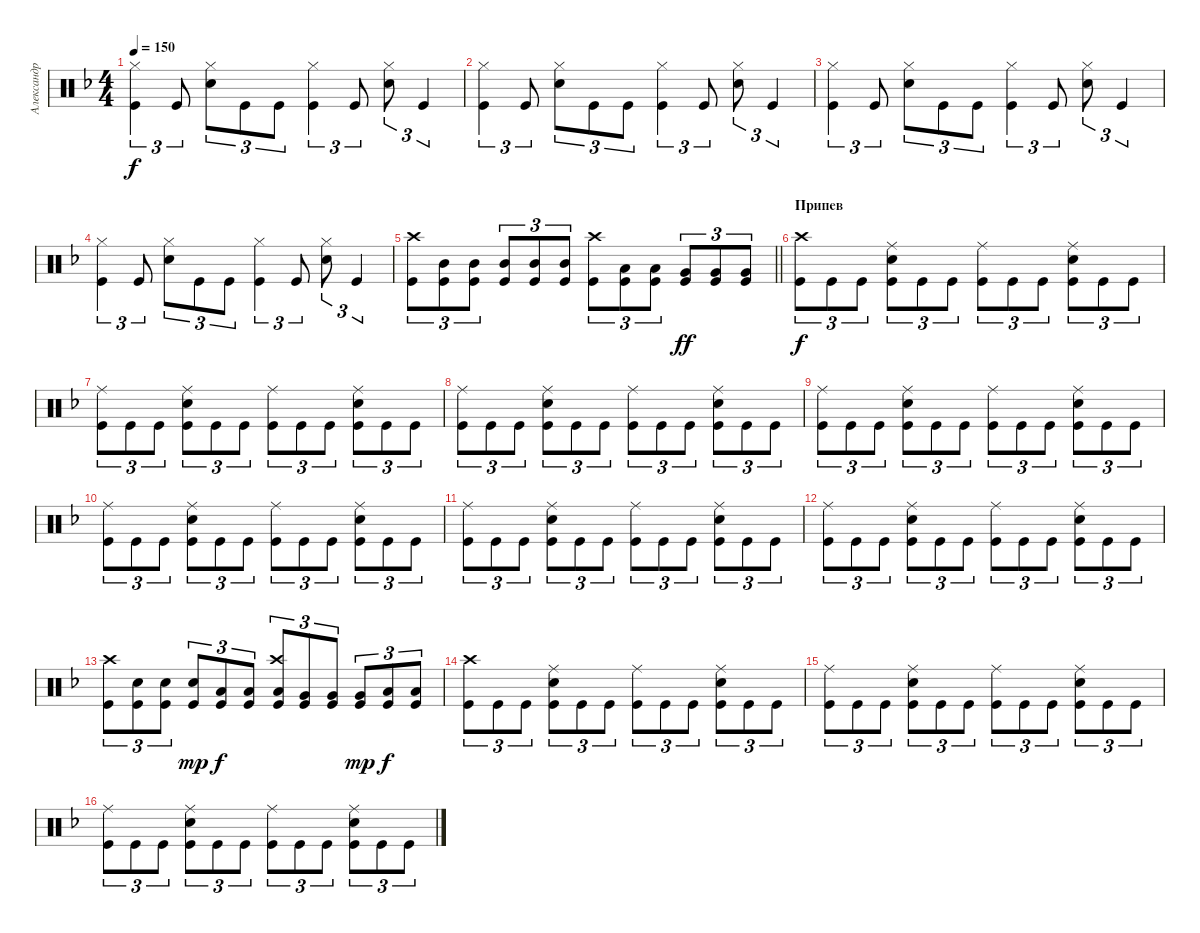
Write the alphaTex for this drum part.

\track ("Александр Манякин" "Александр ") {instrument percussion}
\staff {score}
\articulation defaults
\ts (4 4)
\tempo 150
\clef neutral
\ks dminor
("Kick (hit)" "Hi-Hat (closed)").4{tu (3 2) dy f} "Kick (hit)".8{tu (3 2)} ("Snare (hit) 2" "Hi-Hat (closed)").8{tu (3 2)} "Kick (hit)".8{tu (3 2)} "Kick (hit)".8{tu (3 2)} ("Kick (hit)" "Hi-Hat (closed)").4{tu (3 2)} "Kick (hit)".8{tu (3 2)} ("Snare (hit) 2" "Hi-Hat (closed)").8{tu (3 2)} "Kick (hit)".4{tu (3 2)} |
("Kick (hit)" "Hi-Hat (closed)").4{tu (3 2)} "Kick (hit)".8{tu (3 2)} ("Snare (hit) 2" "Hi-Hat (closed)").8{tu (3 2)} "Kick (hit)".8{tu (3 2)} "Kick (hit)".8{tu (3 2)} ("Kick (hit)" "Hi-Hat (closed)").4{tu (3 2)} "Kick (hit)".8{tu (3 2)} ("Snare (hit) 2" "Hi-Hat (closed)").8{tu (3 2)} "Kick (hit)".4{tu (3 2)} |
("Kick (hit)" "Hi-Hat (closed)").4{tu (3 2)} "Kick (hit)".8{tu (3 2)} ("Snare (hit) 2" "Hi-Hat (closed)").8{tu (3 2)} "Kick (hit)".8{tu (3 2)} "Kick (hit)".8{tu (3 2)} ("Kick (hit)" "Hi-Hat (closed)").4{tu (3 2)} "Kick (hit)".8{tu (3 2)} ("Snare (hit) 2" "Hi-Hat (closed)").8{tu (3 2)} "Kick (hit)".4{tu (3 2)} |
("Kick (hit)" "Hi-Hat (closed)").4{tu (3 2)} "Kick (hit)".8{tu (3 2)} ("Snare (hit) 2" "Hi-Hat (closed)").8{tu (3 2)} "Kick (hit)".8{tu (3 2)} "Kick (hit)".8{tu (3 2)} ("Kick (hit)" "Hi-Hat (closed)").4{tu (3 2)} "Kick (hit)".8{tu (3 2)} ("Snare (hit) 2" "Hi-Hat (closed)").8{tu (3 2)} "Kick (hit)".4{tu (3 2)} |
\barLineRight lightlight
("Kick (hit)" "Crash high (hit)").8{tu (3 2)} ("Mid Tom (hit)" "Kick (hit)").8{tu (3 2)} ("Mid Tom (hit)" "Kick (hit)").8{tu (3 2)} ("Mid Tom (hit)" "Kick (hit)").8{tu (3 2)} ("Mid Tom (hit)" "Kick (hit)").8{tu (3 2)} ("Mid Tom (hit)" "Kick (hit)").8{tu (3 2)} ("Kick (hit)" "Crash high (hit)").8{tu (3 2)} ("Low Tom (hit)" "Kick (hit)").8{tu (3 2)} ("Low Tom (hit)" "Kick (hit)").8{tu (3 2)} ("Very Low Tom (hit)" "Kick (hit)").8{tu (3 2) dy ff} ("Very Low Tom (hit)" "Kick (hit)").8{tu (3 2)} ("Very Low Tom (hit)" "Kick (hit)").8{tu (3 2)} |
\section ("" "Припев")
("Kick (hit)" "Crash high (hit)").8{tu (3 2) dy f} "Kick (hit)".8{tu (3 2)} "Kick (hit)".8{tu (3 2)} ("Snare (hit) 2" "Kick (hit)" "Ride (middle)").8{tu (3 2)} "Kick (hit)".8{tu (3 2)} "Kick (hit)".8{tu (3 2)} ("Kick (hit)" "Ride (middle)").8{tu (3 2)} "Kick (hit)".8{tu (3 2)} "Kick (hit)".8{tu (3 2)} ("Kick (hit)" "Snare (hit) 2" "Ride (middle)").8{tu (3 2)} "Kick (hit)".8{tu (3 2)} "Kick (hit)".8{tu (3 2)} |
("Kick (hit)" "Ride (middle)").8{tu (3 2)} "Kick (hit)".8{tu (3 2)} "Kick (hit)".8{tu (3 2)} ("Snare (hit) 2" "Kick (hit)" "Ride (middle)").8{tu (3 2)} "Kick (hit)".8{tu (3 2)} "Kick (hit)".8{tu (3 2)} ("Kick (hit)" "Ride (middle)").8{tu (3 2)} "Kick (hit)".8{tu (3 2)} "Kick (hit)".8{tu (3 2)} ("Kick (hit)" "Snare (hit) 2" "Ride (middle)").8{tu (3 2)} "Kick (hit)".8{tu (3 2)} "Kick (hit)".8{tu (3 2)} |
("Kick (hit)" "Ride (middle)").8{tu (3 2)} "Kick (hit)".8{tu (3 2)} "Kick (hit)".8{tu (3 2)} ("Snare (hit) 2" "Kick (hit)" "Ride (middle)").8{tu (3 2)} "Kick (hit)".8{tu (3 2)} "Kick (hit)".8{tu (3 2)} ("Kick (hit)" "Ride (middle)").8{tu (3 2)} "Kick (hit)".8{tu (3 2)} "Kick (hit)".8{tu (3 2)} ("Kick (hit)" "Snare (hit) 2" "Ride (middle)").8{tu (3 2)} "Kick (hit)".8{tu (3 2)} "Kick (hit)".8{tu (3 2)} |
("Kick (hit)" "Ride (middle)").8{tu (3 2)} "Kick (hit)".8{tu (3 2)} "Kick (hit)".8{tu (3 2)} ("Snare (hit) 2" "Kick (hit)" "Ride (middle)").8{tu (3 2)} "Kick (hit)".8{tu (3 2)} "Kick (hit)".8{tu (3 2)} ("Kick (hit)" "Ride (middle)").8{tu (3 2)} "Kick (hit)".8{tu (3 2)} "Kick (hit)".8{tu (3 2)} ("Kick (hit)" "Snare (hit) 2" "Ride (middle)").8{tu (3 2)} "Kick (hit)".8{tu (3 2)} "Kick (hit)".8{tu (3 2)} |
("Kick (hit)" "Ride (middle)").8{tu (3 2)} "Kick (hit)".8{tu (3 2)} "Kick (hit)".8{tu (3 2)} ("Snare (hit) 2" "Kick (hit)" "Ride (middle)").8{tu (3 2)} "Kick (hit)".8{tu (3 2)} "Kick (hit)".8{tu (3 2)} ("Kick (hit)" "Ride (middle)").8{tu (3 2)} "Kick (hit)".8{tu (3 2)} "Kick (hit)".8{tu (3 2)} ("Kick (hit)" "Snare (hit) 2" "Ride (middle)").8{tu (3 2)} "Kick (hit)".8{tu (3 2)} "Kick (hit)".8{tu (3 2)} |
("Kick (hit)" "Ride (middle)").8{tu (3 2)} "Kick (hit)".8{tu (3 2)} "Kick (hit)".8{tu (3 2)} ("Snare (hit) 2" "Kick (hit)" "Ride (middle)").8{tu (3 2)} "Kick (hit)".8{tu (3 2)} "Kick (hit)".8{tu (3 2)} ("Kick (hit)" "Ride (middle)").8{tu (3 2)} "Kick (hit)".8{tu (3 2)} "Kick (hit)".8{tu (3 2)} ("Kick (hit)" "Snare (hit) 2" "Ride (middle)").8{tu (3 2)} "Kick (hit)".8{tu (3 2)} "Kick (hit)".8{tu (3 2)} |
("Kick (hit)" "Ride (middle)").8{tu (3 2)} "Kick (hit)".8{tu (3 2)} "Kick (hit)".8{tu (3 2)} ("Snare (hit) 2" "Kick (hit)" "Ride (middle)").8{tu (3 2)} "Kick (hit)".8{tu (3 2)} "Kick (hit)".8{tu (3 2)} ("Kick (hit)" "Ride (middle)").8{tu (3 2)} "Kick (hit)".8{tu (3 2)} "Kick (hit)".8{tu (3 2)} ("Kick (hit)" "Snare (hit) 2" "Ride (middle)").8{tu (3 2)} "Kick (hit)".8{tu (3 2)} "Kick (hit)".8{tu (3 2)} |
("Kick (hit)" "Crash high (hit)").8{tu (3 2)} ("Snare (hit) 2" "Kick (hit)").8{tu (3 2)} ("Snare (hit) 2" "Kick (hit)").8{tu (3 2)} ("Snare (hit) 2" "Kick (hit)").8{tu (3 2) dy mp} ("Kick (hit)" "Low Tom (hit)").8{tu (3 2) dy f} ("Kick (hit)" "Low Tom (hit)").8{tu (3 2)} ("Kick (hit)" "Crash high (hit)" "Low Tom (hit)").8{tu (3 2)} ("Very Low Tom (hit)" "Kick (hit)").8{tu (3 2)} ("Very Low Tom (hit)" "Kick (hit)").8{tu (3 2)} ("Very Low Tom (hit)" "Kick (hit)").8{tu (3 2) dy mp} ("Low Floor Tom (hit)" "Kick (hit)").8{tu (3 2) dy f} ("Low Floor Tom (hit)" "Kick (hit)").8{tu (3 2)} |
("Kick (hit)" "Crash high (hit)").8{tu (3 2)} "Kick (hit)".8{tu (3 2)} "Kick (hit)".8{tu (3 2)} ("Snare (hit) 2" "Kick (hit)" "Ride (middle)").8{tu (3 2)} "Kick (hit)".8{tu (3 2)} "Kick (hit)".8{tu (3 2)} ("Kick (hit)" "Ride (middle)").8{tu (3 2)} "Kick (hit)".8{tu (3 2)} "Kick (hit)".8{tu (3 2)} ("Kick (hit)" "Snare (hit) 2" "Ride (middle)").8{tu (3 2)} "Kick (hit)".8{tu (3 2)} "Kick (hit)".8{tu (3 2)} |
("Kick (hit)" "Ride (middle)").8{tu (3 2)} "Kick (hit)".8{tu (3 2)} "Kick (hit)".8{tu (3 2)} ("Snare (hit) 2" "Kick (hit)" "Ride (middle)").8{tu (3 2)} "Kick (hit)".8{tu (3 2)} "Kick (hit)".8{tu (3 2)} ("Kick (hit)" "Ride (middle)").8{tu (3 2)} "Kick (hit)".8{tu (3 2)} "Kick (hit)".8{tu (3 2)} ("Kick (hit)" "Snare (hit) 2" "Ride (middle)").8{tu (3 2)} "Kick (hit)".8{tu (3 2)} "Kick (hit)".8{tu (3 2)} |
("Kick (hit)" "Ride (middle)").8{tu (3 2)} "Kick (hit)".8{tu (3 2)} "Kick (hit)".8{tu (3 2)} ("Snare (hit) 2" "Kick (hit)" "Ride (middle)").8{tu (3 2)} "Kick (hit)".8{tu (3 2)} "Kick (hit)".8{tu (3 2)} ("Kick (hit)" "Ride (middle)").8{tu (3 2)} "Kick (hit)".8{tu (3 2)} "Kick (hit)".8{tu (3 2)} ("Kick (hit)" "Snare (hit) 2" "Ride (middle)").8{tu (3 2)} "Kick (hit)".8{tu (3 2)} "Kick (hit)".8{tu (3 2)}
